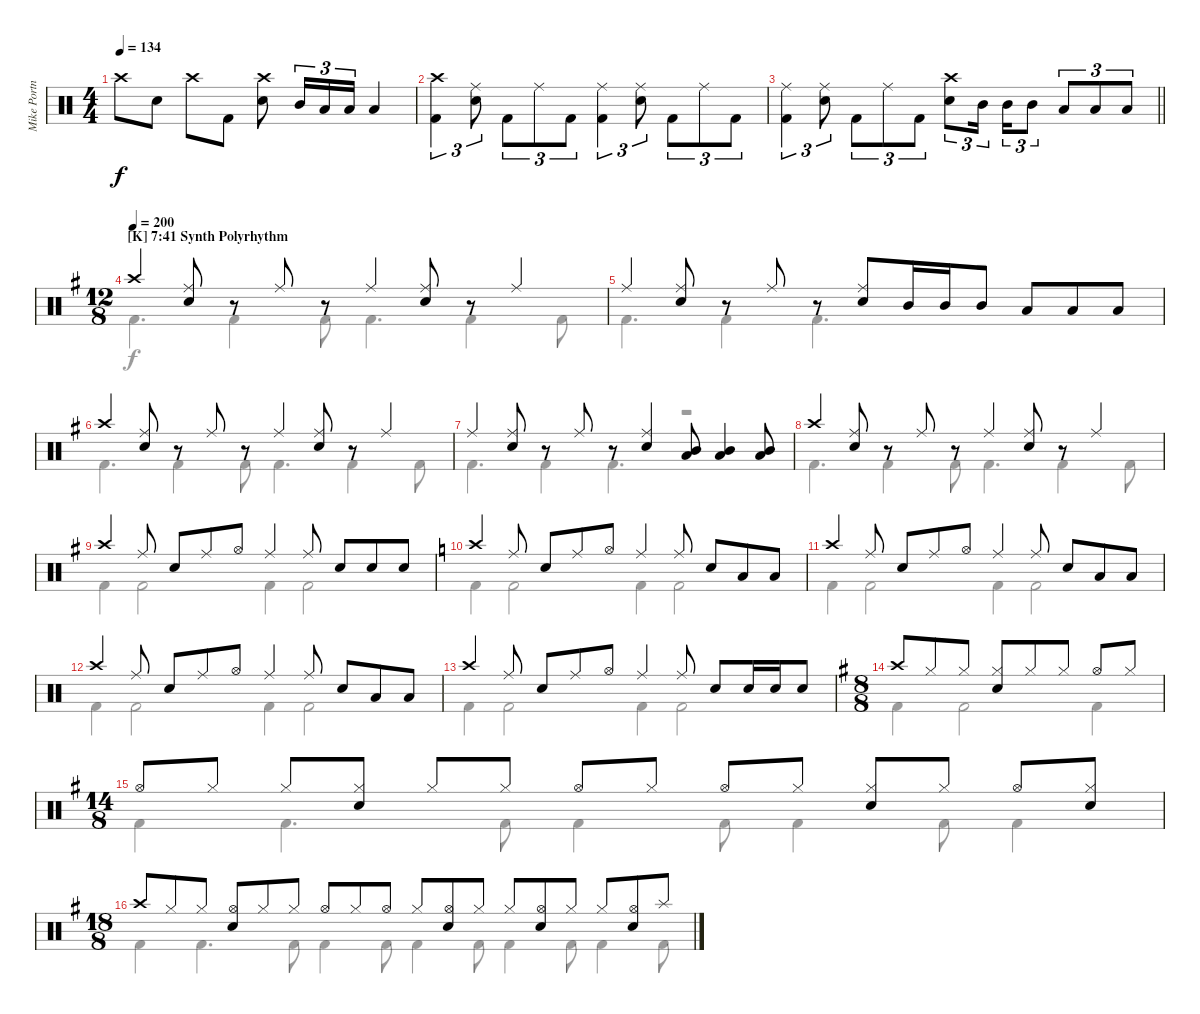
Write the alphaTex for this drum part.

\track ("Mike Portnoy - Drum" "Mike Portn") {instrument percussion}
\staff {score}
\articulation defaults
\voice
\ts (4 4)
\tempo 134
\clef neutral
\ks c "Crash high (hit)".8{dy f} "Electric Snare (hit)".8 "Crash high (hit)".8 "Kick (hit) 2".8
("Crash high (hit)" "Electric Snare (hit)").8 "Mid Tom (hit)".16{tu (3 2)} "Low Tom (hit)".16{tu (3 2)} "Low Tom (hit)".16{tu (3 2)} "Low Tom (hit)".4 |
("Crash high (hit)" "Kick (hit) 2").4{tu (3 2)} ("Ride (middle)" "Electric Snare (hit)").8{tu (3 2)} "Kick (hit) 2".8{tu (3 2)} "Ride (middle)".8{tu (3 2)} "Kick (hit) 2".8{tu (3 2)} ("Ride (middle)" "Kick (hit) 2").4{tu (3 2)} ("Ride (middle)" "Electric Snare (hit)").8{tu (3 2)} "Kick (hit) 2".8{tu (3 2)} "Ride (middle)".8{tu (3 2)} "Kick (hit) 2".8{tu (3 2)} |
\barLineRight lightlight
("Ride (middle)" "Kick (hit) 2").4{tu (3 2)} ("Ride (middle)" "Electric Snare (hit)").8{tu (3 2)} "Kick (hit) 2".8{tu (3 2)} "Ride (middle)".8{tu (3 2)} "Kick (hit) 2".8{tu (3 2)} ("Crash high (hit)" "Electric Snare (hit)").8{tu (3 2)} "Mid Tom (hit)".16{tu (3 2) beam splitsecondary} "Mid Tom (hit)".16{tu (3 2)} "Mid Tom (hit)".8{tu (3 2)} "Low Tom (hit)".8{tu (3 2)} "Low Tom (hit)".8{tu (3 2)} "Low Tom (hit)".8{tu (3 2)} |
\ts (12 8)
\section ("" "[K] 7:41 Synth Polyrhythm")
\tempo 200
\ks g "Crash high (hit)".4
("Ride (middle)" "Electric Snare (hit)").8 r.8 "Ride (middle)".8 r.8 "Ride (middle)".4 ("Ride (middle)" "Electric Snare (hit)").8 r.8 "Ride (middle)".4 |
"Ride (middle)".4 ("Ride (middle)" "Electric Snare (hit)").8 r.8 "Ride (middle)".8 r.8 ("Ride (middle)" "Electric Snare (hit)").8 "Mid Tom (hit)".16 "Mid Tom (hit)".16 "Mid Tom (hit)".8 "Low Tom (hit)".8 "Low Tom (hit)".8 "Low Tom (hit)".8 |
"Crash high (hit)".4 ("Ride (middle)" "Electric Snare (hit)").8 r.8 "Ride (middle)".8 r.8 "Ride (middle)".4 ("Ride (middle)" "Electric Snare (hit)").8 r.8 "Ride (middle)".4 |
"Ride (middle)".4 ("Ride (middle)" "Electric Snare (hit)").8 r.8 "Ride (middle)".8 r.8 ("Ride (middle)" "Electric Snare (hit)").4 ("Low Tom (hit)" "Mid Tom (hit)").8 ("Low Tom (hit)" "Mid Tom (hit)").4 ("Low Tom (hit)" "Mid Tom (hit)").8 |
"Crash high (hit)".4 ("Ride (middle)" "Electric Snare (hit)").8 r.8 "Ride (middle)".8 r.8 "Ride (middle)".4 ("Ride (middle)" "Electric Snare (hit)").8 r.8 "Ride (middle)".4 |
"Crash high (hit)".4 "Ride (middle)".8 "Electric Snare (hit)".8 "Ride (middle)".8 "Hi-Hat (open)".8 "Ride (middle)".4 "Ride (middle)".8 "Electric Snare (hit)".8 "Electric Snare (hit)".8 "Electric Snare (hit)".8 |
\ks c "Crash high (hit)".4 "Ride (middle)".8 "Electric Snare (hit)".8 "Ride (middle)".8 "Hi-Hat (open)".8 "Ride (middle)".4 "Ride (middle)".8 "Electric Snare (hit)".8 "Low Tom (hit)".8 "Low Tom (hit)".8
|
"Crash high (hit)".4 "Ride (middle)".8 "Electric Snare (hit)".8 "Ride (middle)".8 "Hi-Hat (open)".8 "Ride (middle)".4 "Ride (middle)".8 "Electric Snare (hit)".8 "Low Tom (hit)".8 "Low Tom (hit)".8 |
"Crash high (hit)".4 "Ride (middle)".8 "Electric Snare (hit)".8 "Ride (middle)".8 "Hi-Hat (open)".8 "Ride (middle)".4 "Ride (middle)".8 "Electric Snare (hit)".8 "Low Tom (hit)".8 "Low Tom (hit)".8 |
"Crash high (hit)".4 "Ride (middle)".8 "Electric Snare (hit)".8 "Ride (middle)".8 "Hi-Hat (open)".8 "Ride (middle)".4 "Ride (middle)".8 "Electric Snare (hit)".8 "Electric Snare (hit)".16 "Electric Snare (hit)".16 "Electric Snare (hit)".8 |
\ts (8 8)
\ks g "Crash high (hit)".8 "Hi-Hat (closed)".8 "Hi-Hat (closed)".8
("Hi-Hat (closed)" "Electric Snare (hit)").8 "Hi-Hat (closed)".8 "Hi-Hat (closed)".8 "Hi-Hat (open)".8 "Hi-Hat (closed)".8 |
\ts (14 8)
"Hi-Hat (open)".8 "Hi-Hat (closed)".8 "Hi-Hat (closed)".8 ("Hi-Hat (closed)" "Electric Snare (hit)").8 "Hi-Hat (closed)".8 "Hi-Hat (closed)".8 "Hi-Hat (open)".8 "Hi-Hat (closed)".8 "Hi-Hat (open)".8 "Hi-Hat (closed)".8 ("Hi-Hat (closed)" "Electric Snare (hit)").8 "Hi-Hat (closed)".8 "Hi-Hat (open)".8 ("Hi-Hat (closed)" "Electric Snare (hit)").8 |
\ts (18 8)
"Crash high (hit)".8 "Hi-Hat (closed)".8 "Hi-Hat (closed)".8 ("Hi-Hat (open)" "Electric Snare (hit)").8 "Hi-Hat (closed)".8 "Hi-Hat (closed)".8 "Hi-Hat (open)".8 "Hi-Hat (closed)".8 "Hi-Hat (open)".8 "Hi-Hat (closed)".8 ("Hi-Hat (open)" "Electric Snare (hit)").8 "Hi-Hat (closed)".8 "Hi-Hat (closed)".8 ("Hi-Hat (open)" "Electric Snare (hit)").8 "Hi-Hat (closed)".8 "Hi-Hat (closed)".8 ("Hi-Hat (open)" "Electric Snare (hit)").8 "Splash (hit)".8
\voice
\clef neutral
\ottava regular
\simile none
\ks c
|
|
\barLineRight lightlight
|
\ks g "Kick (hit) 2".4{d} "Kick (hit) 2".4 "Kick (hit) 2".8 "Kick (hit) 2".4{d} "Kick (hit) 2".4 "Kick (hit) 2".8
|
"Kick (hit) 2".4{d} "Kick (hit) 2".4 "Kick (hit) 2".4{d} r.2 |
"Kick (hit) 2".4{d} "Kick (hit) 2".4 "Kick (hit) 2".8 "Kick (hit) 2".4{d} "Kick (hit) 2".4 "Kick (hit) 2".8 |
"Kick (hit) 2".4{d} "Kick (hit) 2".4 "Kick (hit) 2".4{d} r.2 |
"Kick (hit) 2".4{d} "Kick (hit) 2".4 "Kick (hit) 2".8 "Kick (hit) 2".4{d} "Kick (hit) 2".4 "Kick (hit) 2".8 |
"Kick (hit) 2".4 "Kick (hit) 2".2 "Kick (hit) 2".4 "Kick (hit) 2".2 |
\ks c "Kick (hit) 2".4 "Kick (hit) 2".2 "Kick (hit) 2".4 "Kick (hit) 2".2
|
"Kick (hit) 2".4 "Kick (hit) 2".2 "Kick (hit) 2".4 "Kick (hit) 2".2 |
"Kick (hit) 2".4 "Kick (hit) 2".2 "Kick (hit) 2".4 "Kick (hit) 2".2 |
"Kick (hit) 2".4 "Kick (hit) 2".2 "Kick (hit) 2".4 "Kick (hit) 2".2 |
\ks g "Kick (hit) 2".4 "Kick (hit) 2".2 "Kick (hit) 2".4
|
"Kick (hit) 2".4 "Kick (hit) 2".4{d} "Kick (hit) 2".8 "Kick (hit) 2".4 "Kick (hit) 2".8 "Kick (hit) 2".4 "Kick (hit) 2".8 "Kick (hit) 2".4 |
"Kick (hit) 2".4 "Kick (hit) 2".4{d} "Kick (hit) 2".8 "Kick (hit) 2".4 "Kick (hit) 2".8 "Kick (hit) 2".4 "Kick (hit) 2".8 "Kick (hit) 2".4 "Kick (hit) 2".8 "Kick (hit) 2".4 "Kick (hit) 2".8
